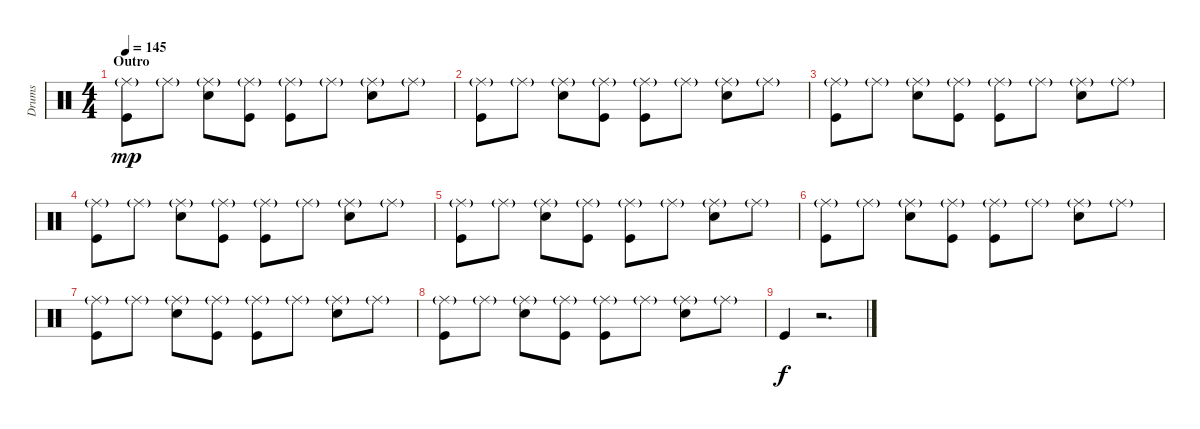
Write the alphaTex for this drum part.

\track ("Drums" "Drums") {instrument percussion}
\staff {score}
\articulation defaults
\ts (4 4)
\section ("" "Outro")
\tempo 145
\clef neutral
\ks c
("Ride (middle)"{g} "Kick (hit)").8{dy mp} "Ride (middle)"{g}.8 ("Ride (middle)"{g} "Snare (hit) 2").8 ("Ride (middle)"{g} "Kick (hit)").8 ("Ride (middle)"{g} "Kick (hit)").8 "Ride (middle)"{g}.8 ("Ride (middle)"{g} "Snare (hit) 2").8 "Ride (middle)"{g}.8 |
("Ride (middle)"{g} "Kick (hit)").8 "Ride (middle)"{g}.8 ("Ride (middle)"{g} "Snare (hit) 2").8 ("Ride (middle)"{g} "Kick (hit)").8 ("Ride (middle)"{g} "Kick (hit)").8 "Ride (middle)"{g}.8 ("Ride (middle)"{g} "Snare (hit) 2").8 "Ride (middle)"{g}.8 |
("Ride (middle)"{g} "Kick (hit)").8 "Ride (middle)"{g}.8 ("Ride (middle)"{g} "Snare (hit) 2").8 ("Ride (middle)"{g} "Kick (hit)").8 ("Ride (middle)"{g} "Kick (hit)").8 "Ride (middle)"{g}.8 ("Ride (middle)"{g} "Snare (hit) 2").8 "Ride (middle)"{g}.8 |
("Ride (middle)"{g} "Kick (hit)").8 "Ride (middle)"{g}.8 ("Ride (middle)"{g} "Snare (hit) 2").8 ("Ride (middle)"{g} "Kick (hit)").8 ("Ride (middle)"{g} "Kick (hit)").8 "Ride (middle)"{g}.8 ("Ride (middle)"{g} "Snare (hit) 2").8 "Ride (middle)"{g}.8 |
("Ride (middle)"{g} "Kick (hit)").8 "Ride (middle)"{g}.8 ("Ride (middle)"{g} "Snare (hit) 2").8 ("Ride (middle)"{g} "Kick (hit)").8 ("Ride (middle)"{g} "Kick (hit)").8 "Ride (middle)"{g}.8 ("Ride (middle)"{g} "Snare (hit) 2").8 "Ride (middle)"{g}.8 |
("Ride (middle)"{g} "Kick (hit)").8 "Ride (middle)"{g}.8 ("Ride (middle)"{g} "Snare (hit) 2").8 ("Ride (middle)"{g} "Kick (hit)").8 ("Ride (middle)"{g} "Kick (hit)").8 "Ride (middle)"{g}.8 ("Ride (middle)"{g} "Snare (hit) 2").8 "Ride (middle)"{g}.8 |
("Ride (middle)"{g} "Kick (hit)").8 "Ride (middle)"{g}.8 ("Ride (middle)"{g} "Snare (hit) 2").8 ("Ride (middle)"{g} "Kick (hit)").8 ("Ride (middle)"{g} "Kick (hit)").8 "Ride (middle)"{g}.8 ("Ride (middle)"{g} "Snare (hit) 2").8 "Ride (middle)"{g}.8 |
("Ride (middle)"{g} "Kick (hit)").8 "Ride (middle)"{g}.8 ("Ride (middle)"{g} "Snare (hit) 2").8 ("Ride (middle)"{g} "Kick (hit)").8 ("Ride (middle)"{g} "Kick (hit)").8 "Ride (middle)"{g}.8 ("Ride (middle)"{g} "Snare (hit) 2").8 "Ride (middle)"{g}.8 |
"Kick (hit)".4{dy f} r.2{d}
